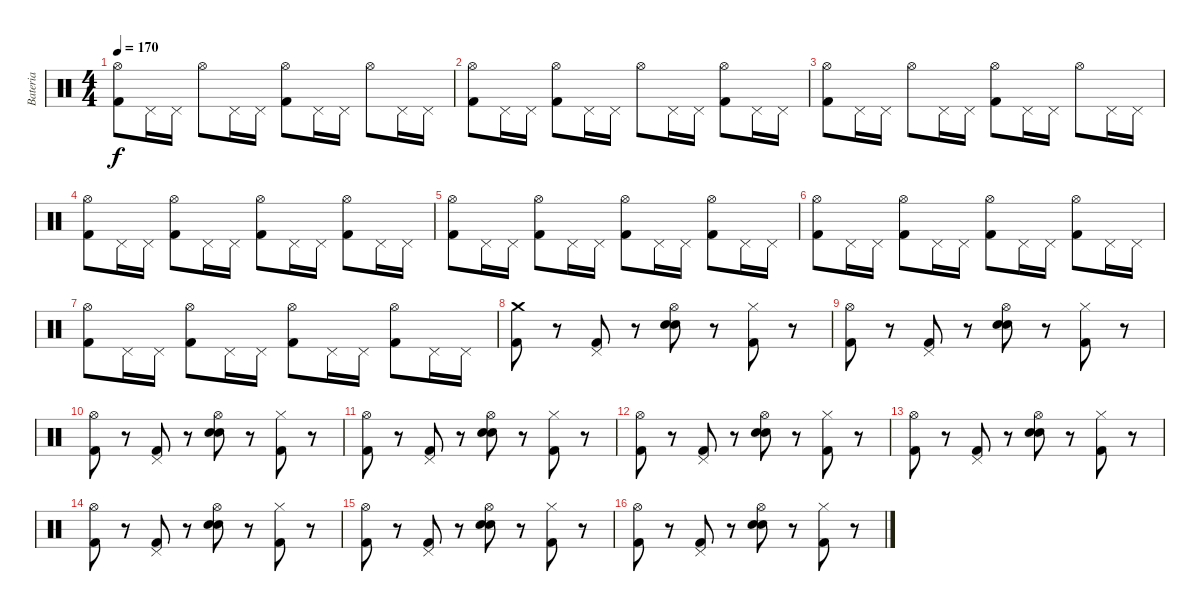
\track ("Bateria" "Bateria") {instrument percussion}
\staff {score}
\articulation defaults
\ts (4 4)
\tempo 170
\clef neutral
\ks c
("Hi-Hat (open)" "Kick (hit) 2").8{dy f} "Pedal Hi-Hat (hit)".16 "Pedal Hi-Hat (hit)".16 "Hi-Hat (open)".8 "Pedal Hi-Hat (hit)".16 "Pedal Hi-Hat (hit)".16 ("Hi-Hat (open)" "Kick (hit) 2").8 "Pedal Hi-Hat (hit)".16 "Pedal Hi-Hat (hit)".16 "Hi-Hat (open)".8 "Pedal Hi-Hat (hit)".16 "Pedal Hi-Hat (hit)".16 |
("Hi-Hat (open)" "Kick (hit) 2").8 "Pedal Hi-Hat (hit)".16 "Pedal Hi-Hat (hit)".16 ("Hi-Hat (open)" "Kick (hit) 2").8 "Pedal Hi-Hat (hit)".16 "Pedal Hi-Hat (hit)".16 "Hi-Hat (open)".8 "Pedal Hi-Hat (hit)".16 "Pedal Hi-Hat (hit)".16 ("Hi-Hat (open)" "Kick (hit) 2").8 "Pedal Hi-Hat (hit)".16 "Pedal Hi-Hat (hit)".16 |
("Hi-Hat (open)" "Kick (hit) 2").8 "Pedal Hi-Hat (hit)".16 "Pedal Hi-Hat (hit)".16 "Hi-Hat (open)".8 "Pedal Hi-Hat (hit)".16 "Pedal Hi-Hat (hit)".16 ("Hi-Hat (open)" "Kick (hit) 2").8 "Pedal Hi-Hat (hit)".16 "Pedal Hi-Hat (hit)".16 "Hi-Hat (open)".8 "Pedal Hi-Hat (hit)".16 "Pedal Hi-Hat (hit)".16 |
("Hi-Hat (open)" "Kick (hit) 2").8 "Pedal Hi-Hat (hit)".16 "Pedal Hi-Hat (hit)".16 ("Hi-Hat (open)" "Kick (hit) 2").8 "Pedal Hi-Hat (hit)".16 "Pedal Hi-Hat (hit)".16 ("Hi-Hat (open)" "Kick (hit) 2").8 "Pedal Hi-Hat (hit)".16 "Pedal Hi-Hat (hit)".16 ("Hi-Hat (open)" "Kick (hit) 2").8 "Pedal Hi-Hat (hit)".16 "Pedal Hi-Hat (hit)".16 |
("Hi-Hat (open)" "Kick (hit) 2").8 "Pedal Hi-Hat (hit)".16 "Pedal Hi-Hat (hit)".16 ("Hi-Hat (open)" "Kick (hit) 2").8 "Pedal Hi-Hat (hit)".16 "Pedal Hi-Hat (hit)".16 ("Hi-Hat (open)" "Kick (hit) 2").8 "Pedal Hi-Hat (hit)".16 "Pedal Hi-Hat (hit)".16 ("Hi-Hat (open)" "Kick (hit) 2").8 "Pedal Hi-Hat (hit)".16 "Pedal Hi-Hat (hit)".16 |
("Hi-Hat (open)" "Kick (hit) 2").8 "Pedal Hi-Hat (hit)".16 "Pedal Hi-Hat (hit)".16 ("Hi-Hat (open)" "Kick (hit) 2").8 "Pedal Hi-Hat (hit)".16 "Pedal Hi-Hat (hit)".16 ("Hi-Hat (open)" "Kick (hit) 2").8 "Pedal Hi-Hat (hit)".16 "Pedal Hi-Hat (hit)".16 ("Hi-Hat (open)" "Kick (hit) 2").8 "Pedal Hi-Hat (hit)".16 "Pedal Hi-Hat (hit)".16 |
("Hi-Hat (open)" "Kick (hit) 2").8 "Pedal Hi-Hat (hit)".16 "Pedal Hi-Hat (hit)".16 ("Hi-Hat (open)" "Kick (hit) 2").8 "Pedal Hi-Hat (hit)".16 "Pedal Hi-Hat (hit)".16 ("Hi-Hat (open)" "Kick (hit) 2").8 "Pedal Hi-Hat (hit)".16 "Pedal Hi-Hat (hit)".16 ("Hi-Hat (open)" "Kick (hit) 2").8 "Pedal Hi-Hat (hit)".16 "Pedal Hi-Hat (hit)".16 |
("Crash medium (hit)" "Kick (hit) 2").8 r.8 ("Pedal Hi-Hat (hit)" "Kick (hit) 2").8 r.8 ("Hi-Hat (open)" "Electric Snare (hit)" "Snare (hit) 2").8 r.8 ("Hi-Hat (closed)" "Kick (hit) 2").8 r.8 |
("Hi-Hat (open)" "Kick (hit) 2").8 r.8 ("Pedal Hi-Hat (hit)" "Kick (hit) 2").8 r.8 ("Hi-Hat (open)" "Electric Snare (hit)" "Snare (hit) 2").8 r.8 ("Hi-Hat (closed)" "Kick (hit) 2").8 r.8 |
("Hi-Hat (open)" "Kick (hit) 2").8 r.8 ("Pedal Hi-Hat (hit)" "Kick (hit) 2").8 r.8 ("Hi-Hat (open)" "Electric Snare (hit)" "Snare (hit) 2").8 r.8 ("Hi-Hat (closed)" "Kick (hit) 2").8 r.8 |
("Hi-Hat (open)" "Kick (hit) 2").8 r.8 ("Pedal Hi-Hat (hit)" "Kick (hit) 2").8 r.8 ("Hi-Hat (open)" "Electric Snare (hit)" "Snare (hit) 2").8 r.8 ("Hi-Hat (closed)" "Kick (hit) 2").8 r.8 |
("Hi-Hat (open)" "Kick (hit) 2").8 r.8 ("Pedal Hi-Hat (hit)" "Kick (hit) 2").8 r.8 ("Hi-Hat (open)" "Electric Snare (hit)" "Snare (hit) 2").8 r.8 ("Hi-Hat (closed)" "Kick (hit) 2").8 r.8 |
("Hi-Hat (open)" "Kick (hit) 2").8 r.8 ("Pedal Hi-Hat (hit)" "Kick (hit) 2").8 r.8 ("Hi-Hat (open)" "Electric Snare (hit)" "Snare (hit) 2").8 r.8 ("Hi-Hat (closed)" "Kick (hit) 2").8 r.8 |
("Hi-Hat (open)" "Kick (hit) 2").8 r.8 ("Pedal Hi-Hat (hit)" "Kick (hit) 2").8 r.8 ("Hi-Hat (open)" "Electric Snare (hit)" "Snare (hit) 2").8 r.8 ("Hi-Hat (closed)" "Kick (hit) 2").8 r.8 |
("Hi-Hat (open)" "Kick (hit) 2").8 r.8 ("Pedal Hi-Hat (hit)" "Kick (hit) 2").8 r.8 ("Hi-Hat (open)" "Electric Snare (hit)" "Snare (hit) 2").8 r.8 ("Hi-Hat (closed)" "Kick (hit) 2").8 r.8 |
("Hi-Hat (open)" "Kick (hit) 2").8 r.8 ("Pedal Hi-Hat (hit)" "Kick (hit) 2").8 r.8 ("Hi-Hat (open)" "Electric Snare (hit)" "Snare (hit) 2").8 r.8 ("Hi-Hat (closed)" "Kick (hit) 2").8 r.8
